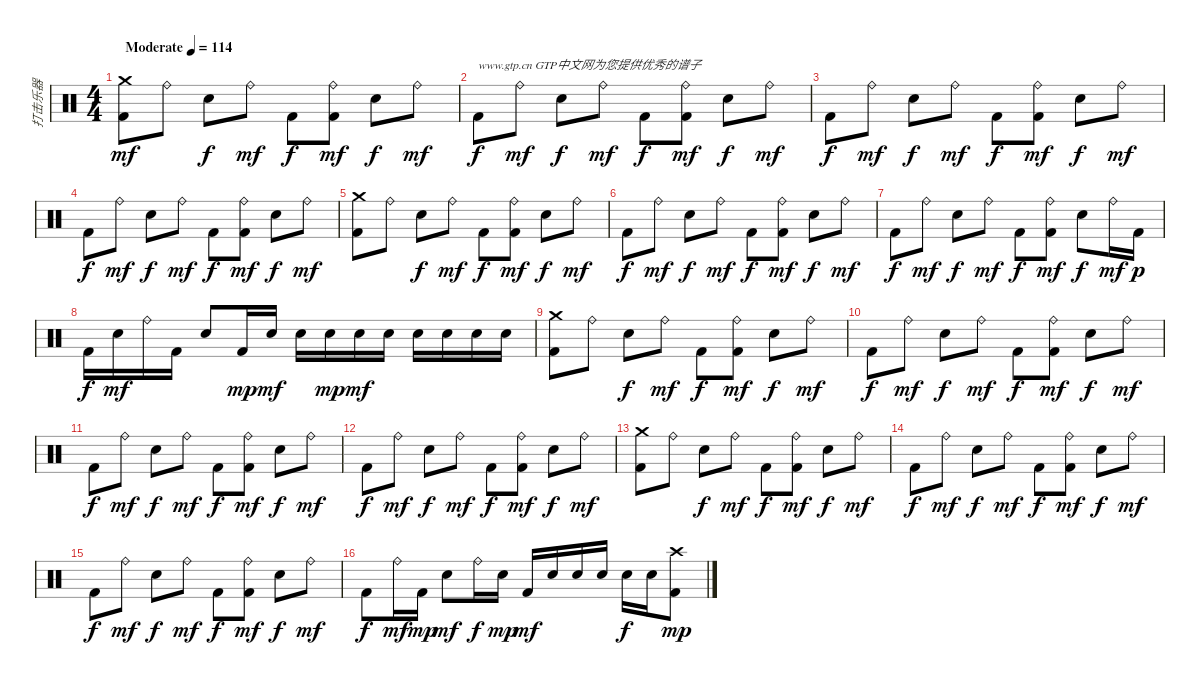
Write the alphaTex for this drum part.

\track ("打击乐器" "打击乐器") {instrument percussion}
\staff {score}
\articulation defaults
\ts (4 4)
\tempo (114 "Moderate")
\clef neutral
\ks c
("Crash medium (hit)" "Kick (hit) 2").8{dy mf} "Ride (bell)".8 "Snare (hit) 2".8{dy f} "Ride (bell)".8{dy mf} "Kick (hit) 2".8{dy f} ("Ride (bell)" "Kick (hit) 2").8{dy mf} "Snare (hit) 2".8{dy f} "Ride (bell)".8{dy mf} |
"Kick (hit) 2".8{txt "www.gtp.cn GTP中文网为您提供优秀的谱子" dy f} "Ride (bell)".8{dy mf} "Snare (hit) 2".8{dy f} "Ride (bell)".8{dy mf} "Kick (hit) 2".8{dy f} ("Ride (bell)" "Kick (hit) 2").8{dy mf} "Snare (hit) 2".8{dy f} "Ride (bell)".8{dy mf} |
"Kick (hit) 2".8{dy f} "Ride (bell)".8{dy mf} "Snare (hit) 2".8{dy f} "Ride (bell)".8{dy mf} "Kick (hit) 2".8{dy f} ("Ride (bell)" "Kick (hit) 2").8{dy mf} "Snare (hit) 2".8{dy f} "Ride (bell)".8{dy mf} |
"Kick (hit) 2".8{dy f} "Ride (bell)".8{dy mf} "Snare (hit) 2".8{dy f} "Ride (bell)".8{dy mf} "Kick (hit) 2".8{dy f} ("Ride (bell)" "Kick (hit) 2").8{dy mf} "Snare (hit) 2".8{dy f} "Ride (bell)".8{dy mf} |
("Crash medium (hit)" "Kick (hit) 2").8 "Ride (bell)".8 "Snare (hit) 2".8{dy f} "Ride (bell)".8{dy mf} "Kick (hit) 2".8{dy f} ("Ride (bell)" "Kick (hit) 2").8{dy mf} "Snare (hit) 2".8{dy f} "Ride (bell)".8{dy mf} |
"Kick (hit) 2".8{dy f} "Ride (bell)".8{dy mf} "Snare (hit) 2".8{dy f} "Ride (bell)".8{dy mf} "Kick (hit) 2".8{dy f} ("Ride (bell)" "Kick (hit) 2").8{dy mf} "Snare (hit) 2".8{dy f} "Ride (bell)".8{dy mf} |
"Kick (hit) 2".8{dy f} "Ride (bell)".8{dy mf} "Snare (hit) 2".8{dy f} "Ride (bell)".8{dy mf} "Kick (hit) 2".8{dy f} ("Ride (bell)" "Kick (hit) 2").8{dy mf} "Snare (hit) 2".8{dy f} "Ride (bell)".16{dy mf} "Kick (hit) 2".16{dy p} |
"Kick (hit) 2".16{dy f} "Snare (hit) 2".16{dy mf} "Ride (bell)".16 "Kick (hit) 2".16 "Snare (hit) 2".8 "Kick (hit) 2".16{dy mp} "Snare (hit) 2".16{dy mf} "Snare (hit) 2".16 "Snare (hit) 2".16{dy mp} "Snare (hit) 2".16{dy mf} "Snare (hit) 2".16 "Snare (hit) 2".16 "Snare (hit) 2".16 "Snare (hit) 2".16 "Snare (hit) 2".16 |
("Crash medium (hit)" "Kick (hit) 2").8 "Ride (bell)".8 "Snare (hit) 2".8{dy f} "Ride (bell)".8{dy mf} "Kick (hit) 2".8{dy f} ("Ride (bell)" "Kick (hit) 2").8{dy mf} "Snare (hit) 2".8{dy f} "Ride (bell)".8{dy mf} |
"Kick (hit) 2".8{dy f} "Ride (bell)".8{dy mf} "Snare (hit) 2".8{dy f} "Ride (bell)".8{dy mf} "Kick (hit) 2".8{dy f} ("Ride (bell)" "Kick (hit) 2").8{dy mf} "Snare (hit) 2".8{dy f} "Ride (bell)".8{dy mf} |
"Kick (hit) 2".8{dy f} "Ride (bell)".8{dy mf} "Snare (hit) 2".8{dy f} "Ride (bell)".8{dy mf} "Kick (hit) 2".8{dy f} ("Ride (bell)" "Kick (hit) 2").8{dy mf} "Snare (hit) 2".8{dy f} "Ride (bell)".8{dy mf} |
"Kick (hit) 2".8{dy f} "Ride (bell)".8{dy mf} "Snare (hit) 2".8{dy f} "Ride (bell)".8{dy mf} "Kick (hit) 2".8{dy f} ("Ride (bell)" "Kick (hit) 2").8{dy mf} "Snare (hit) 2".8{dy f} "Ride (bell)".8{dy mf} |
("Crash medium (hit)" "Kick (hit) 2").8 "Ride (bell)".8 "Snare (hit) 2".8{dy f} "Ride (bell)".8{dy mf} "Kick (hit) 2".8{dy f} ("Ride (bell)" "Kick (hit) 2").8{dy mf} "Snare (hit) 2".8{dy f} "Ride (bell)".8{dy mf} |
"Kick (hit) 2".8{dy f} "Ride (bell)".8{dy mf} "Snare (hit) 2".8{dy f} "Ride (bell)".8{dy mf} "Kick (hit) 2".8{dy f} ("Ride (bell)" "Kick (hit) 2").8{dy mf} "Snare (hit) 2".8{dy f} "Ride (bell)".8{dy mf} |
"Kick (hit) 2".8{dy f} "Ride (bell)".8{dy mf} "Snare (hit) 2".8{dy f} "Ride (bell)".8{dy mf} "Kick (hit) 2".8{dy f} ("Ride (bell)" "Kick (hit) 2").8{dy mf} "Snare (hit) 2".8{dy f} "Ride (bell)".8{dy mf} |
"Kick (hit) 2".8{dy f} "Ride (bell)".16{dy mf} "Kick (hit) 2".16{dy mp} "Snare (hit) 2".8{dy mf} "Ride (bell)".16{dy f} "Snare (hit) 2".16{dy mp} "Kick (hit) 2".16{dy mf} "Snare (hit) 2".16 "Snare (hit) 2".16 "Snare (hit) 2".16 "Snare (hit) 2".16{dy f} "Snare (hit) 2".16 ("Crash high (hit)" "Kick (hit) 2").8{dy mp}
